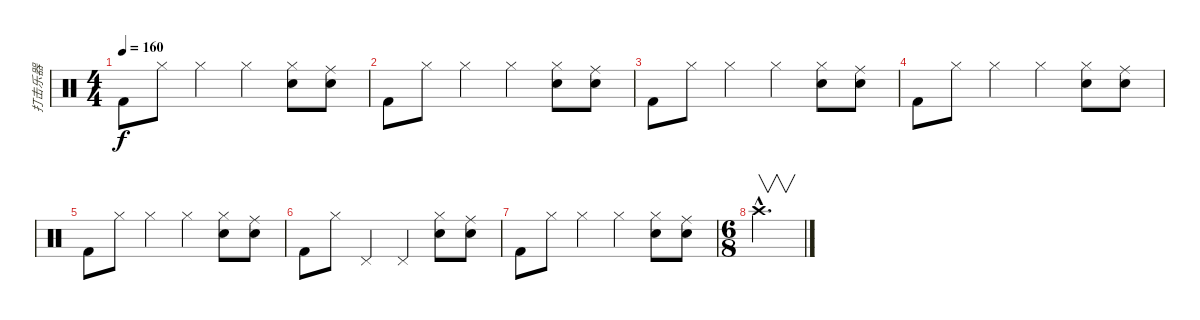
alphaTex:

\track ("打击乐器" "打击乐器") {instrument percussion}
\staff {score}
\articulation defaults
\ts (4 4)
\tempo 160
\clef neutral
\ks c "Kick (hit) 2".8{dy f} "Hi-Hat (closed)".8 "Hi-Hat (closed)".4 "Hi-Hat (closed)".4
("Hi-Hat (closed)" "Snare (hit) 2").8 ("Ride (middle)" "Snare (hit) 2").8 |
"Kick (hit) 2".8 "Hi-Hat (closed)".8 "Hi-Hat (closed)".4 "Hi-Hat (closed)".4 ("Hi-Hat (closed)" "Snare (hit) 2").8 ("Ride (middle)" "Snare (hit) 2").8 |
"Kick (hit) 2".8 "Hi-Hat (closed)".8 "Hi-Hat (closed)".4 "Hi-Hat (closed)".4 ("Hi-Hat (closed)" "Snare (hit) 2").8 ("Ride (middle)" "Snare (hit) 2").8 |
"Kick (hit) 2".8 "Hi-Hat (closed)".8 "Hi-Hat (closed)".4 "Hi-Hat (closed)".4 ("Hi-Hat (closed)" "Snare (hit) 2").8 ("Ride (middle)" "Snare (hit) 2").8 |
"Kick (hit) 2".8 "Hi-Hat (closed)".8 "Hi-Hat (closed)".4 "Hi-Hat (closed)".4 ("Hi-Hat (closed)" "Snare (hit) 2").8 ("Ride (middle)" "Snare (hit) 2").8 |
"Kick (hit) 2".8 "Hi-Hat (closed)".8 "Pedal Hi-Hat (hit)".4 "Pedal Hi-Hat (hit)".4 ("Hi-Hat (closed)" "Snare (hit) 2").8 ("Ride (middle)" "Snare (hit) 2").8 |
"Kick (hit) 2".8 "Hi-Hat (closed)".8 "Hi-Hat (closed)".4 "Hi-Hat (closed)".4 ("Hi-Hat (closed)" "Snare (hit) 2").8 ("Ride (middle)" "Snare (hit) 2").8 |
\ts (6 8)
"Crash high (hit)"{hac}.2{v d}
